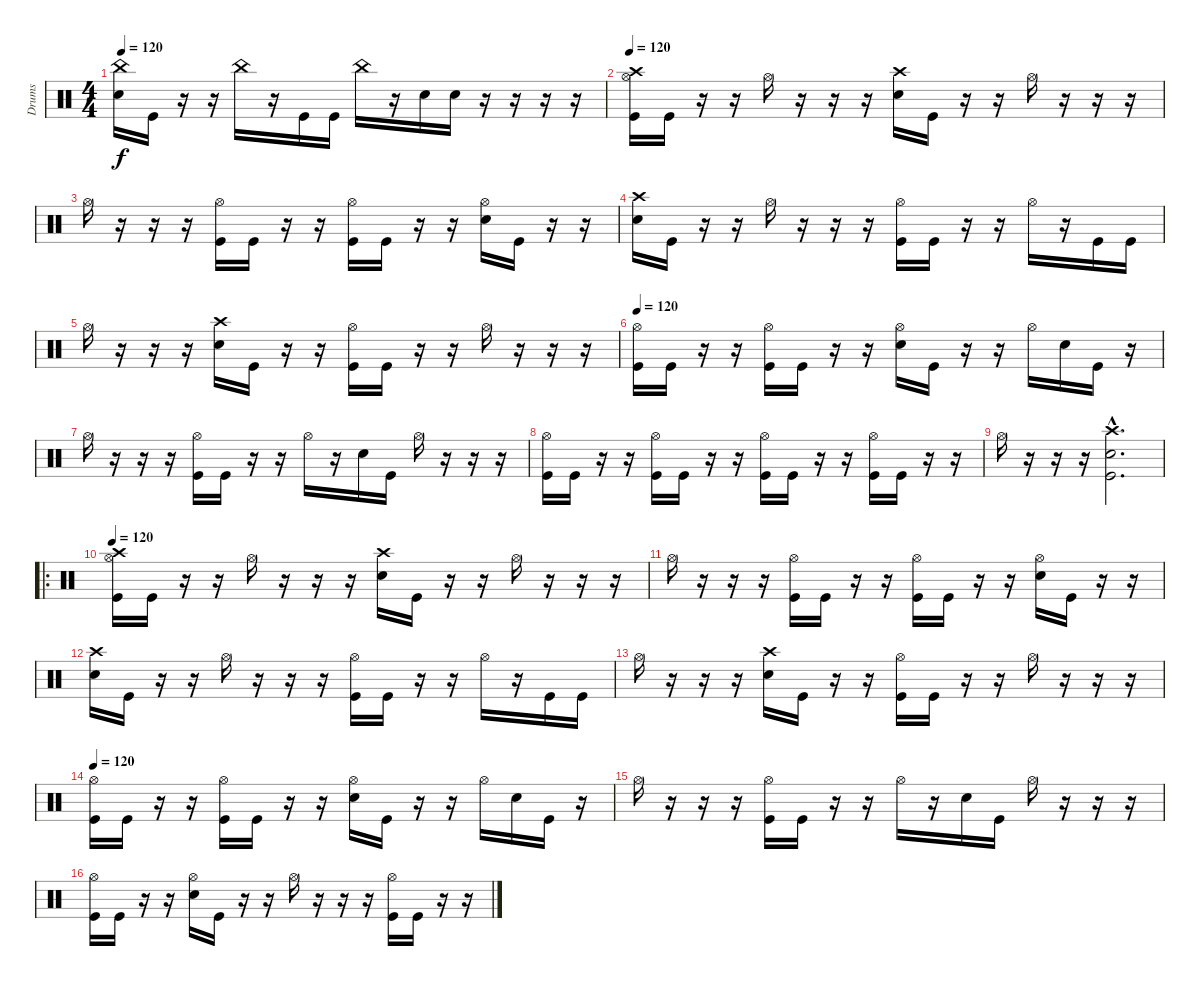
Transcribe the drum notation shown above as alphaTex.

\track ("Drums" "Drums") {instrument percussion}
\staff {score}
\articulation defaults
\ts (4 4)
\tempo 120
\clef neutral
\ks c
("China (hit)" "Snare (hit) 2").16{dy f} "Kick (hit)".16 r.16 r.16 "China (hit)".16 r.16 "Kick (hit)".16 "Kick (hit)".16 "China (hit)".16 r.16 "Snare (hit) 2".16 "Snare (hit) 2".16 r.16 r.16 r.16 r.16 |
\tempo 120
("Crash high (hit)" "Hi-Hat (open)" "Kick (hit)").16 "Kick (hit)".16 r.16 r.16 "Hi-Hat (open)".16 r.16 r.16 r.16 ("Crash high (hit)" "Snare (hit) 2").16 "Kick (hit)".16 r.16 r.16 "Hi-Hat (open)".16 r.16 r.16 r.16 |
"Hi-Hat (open)".16 r.16 r.16 r.16 ("Hi-Hat (open)" "Kick (hit)").16 "Kick (hit)".16 r.16 r.16 ("Hi-Hat (open)" "Kick (hit)").16 "Kick (hit)".16 r.16 r.16 ("Hi-Hat (open)" "Snare (hit) 2").16 "Kick (hit)".16 r.16 r.16 |
("Crash high (hit)" "Snare (hit) 2").16 "Kick (hit)".16 r.16 r.16 "Hi-Hat (open)".16 r.16 r.16 r.16 ("Hi-Hat (open)" "Kick (hit)").16 "Kick (hit)".16 r.16 r.16 "Hi-Hat (open)".16 r.16 "Kick (hit)".16 "Kick (hit)".16 |
"Hi-Hat (open)".16 r.16 r.16 r.16 ("Crash high (hit)" "Snare (hit) 2").16 "Kick (hit)".16 r.16 r.16 ("Hi-Hat (open)" "Kick (hit)").16 "Kick (hit)".16 r.16 r.16 "Hi-Hat (open)".16 r.16 r.16 r.16 |
\tempo 120
("Hi-Hat (open)" "Kick (hit)").16 "Kick (hit)".16 r.16 r.16 ("Hi-Hat (open)" "Kick (hit)").16 "Kick (hit)".16 r.16 r.16 ("Hi-Hat (open)" "Snare (hit) 2").16 "Kick (hit)".16 r.16 r.16 "Hi-Hat (open)".16 "Snare (hit) 2".16 "Kick (hit)".16 r.16 |
"Hi-Hat (open)".16 r.16 r.16 r.16 ("Hi-Hat (open)" "Kick (hit)").16 "Kick (hit)".16 r.16 r.16 "Hi-Hat (open)".16 r.16 "Snare (hit) 2".16 "Kick (hit)".16 "Hi-Hat (open)".16 r.16 r.16 r.16 |
("Hi-Hat (open)" "Kick (hit)").16 "Kick (hit)".16 r.16 r.16 ("Hi-Hat (open)" "Kick (hit)").16 "Kick (hit)".16 r.16 r.16 ("Hi-Hat (open)" "Kick (hit)").16 "Kick (hit)".16 r.16 r.16 ("Hi-Hat (open)" "Kick (hit)").16 "Kick (hit)".16 r.16 r.16 |
"Hi-Hat (open)".16 r.16 r.16 r.16 ("Crash high (hit)"{hac} "Snare (hit) 2"{hac} "Kick (hit)"{hac}).2{d} |
\ro
\tempo 120
("Crash high (hit)" "Hi-Hat (open)" "Kick (hit)").16 "Kick (hit)".16 r.16 r.16 "Hi-Hat (open)".16 r.16 r.16 r.16 ("Crash high (hit)" "Snare (hit) 2").16 "Kick (hit)".16 r.16 r.16 "Hi-Hat (open)".16 r.16 r.16 r.16 |
"Hi-Hat (open)".16 r.16 r.16 r.16 ("Hi-Hat (open)" "Kick (hit)").16 "Kick (hit)".16 r.16 r.16 ("Hi-Hat (open)" "Kick (hit)").16 "Kick (hit)".16 r.16 r.16 ("Hi-Hat (open)" "Snare (hit) 2").16 "Kick (hit)".16 r.16 r.16 |
("Crash high (hit)" "Snare (hit) 2").16 "Kick (hit)".16 r.16 r.16 "Hi-Hat (open)".16 r.16 r.16 r.16 ("Hi-Hat (open)" "Kick (hit)").16 "Kick (hit)".16 r.16 r.16 "Hi-Hat (open)".16 r.16 "Kick (hit)".16 "Kick (hit)".16 |
"Hi-Hat (open)".16 r.16 r.16 r.16 ("Crash high (hit)" "Snare (hit) 2").16 "Kick (hit)".16 r.16 r.16 ("Hi-Hat (open)" "Kick (hit)").16 "Kick (hit)".16 r.16 r.16 "Hi-Hat (open)".16 r.16 r.16 r.16 |
\tempo 120
("Hi-Hat (open)" "Kick (hit)").16 "Kick (hit)".16 r.16 r.16 ("Hi-Hat (open)" "Kick (hit)").16 "Kick (hit)".16 r.16 r.16 ("Hi-Hat (open)" "Snare (hit) 2").16 "Kick (hit)".16 r.16 r.16 "Hi-Hat (open)".16 "Snare (hit) 2".16 "Kick (hit)".16 r.16 |
"Hi-Hat (open)".16 r.16 r.16 r.16 ("Hi-Hat (open)" "Kick (hit)").16 "Kick (hit)".16 r.16 r.16 "Hi-Hat (open)".16 r.16 "Snare (hit) 2".16 "Kick (hit)".16 "Hi-Hat (open)".16 r.16 r.16 r.16 |
("Hi-Hat (open)" "Kick (hit)").16 "Kick (hit)".16 r.16 r.16 ("Hi-Hat (open)" "Snare (hit) 2").16 "Kick (hit)".16 r.16 r.16 "Hi-Hat (open)".16 r.16 r.16 r.16 ("Hi-Hat (open)" "Kick (hit)").16 "Kick (hit)".16 r.16 r.16
